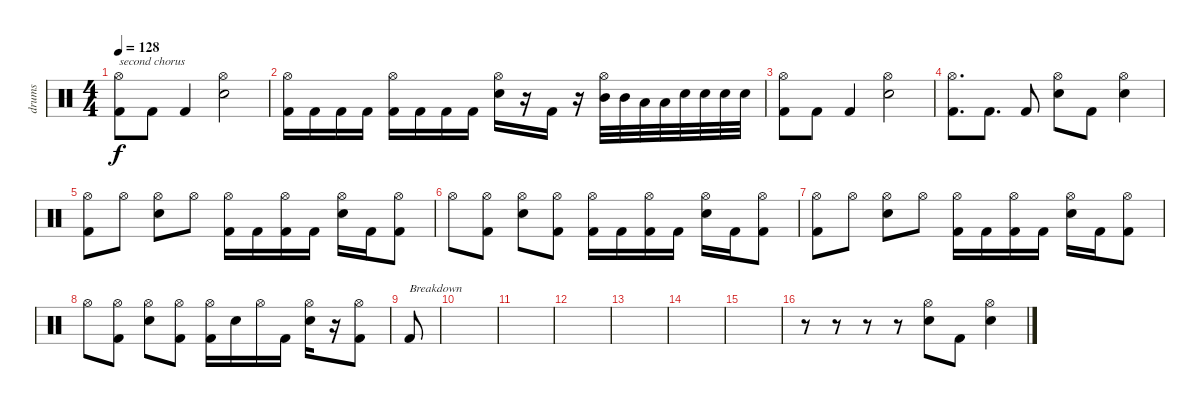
\track ("drums" "drums") {instrument percussion}
\staff {score}
\articulation defaults
\ts (4 4)
\tempo 128
\clef neutral
\ks c
("Hi-Hat (open)" "Kick (hit) 2").8{txt "second chorus" dy f} "Kick (hit) 2".8 "Kick (hit) 2".4 ("Hi-Hat (open)" "Snare (hit) 2").2 |
("Hi-Hat (open)" "Kick (hit) 2").16 "Kick (hit) 2".16 "Kick (hit) 2".16 "Kick (hit) 2".16 ("Hi-Hat (open)" "Kick (hit) 2").16 "Kick (hit) 2".16 "Kick (hit) 2".16 "Kick (hit) 2".16 ("Hi-Hat (open)" "Snare (hit) 2").16 r.16 "Kick (hit) 2".16 r.16 ("Hi-Hat (open)" "Mid Tom (hit)").32 "Mid Tom (hit)".32 "Low Tom (hit)".32 "Low Tom (hit)".32 "Snare (hit) 2".32 "Snare (hit) 2".32 "Snare (hit) 2".32 "Snare (hit) 2".32 |
("Hi-Hat (open)" "Kick (hit) 2").8 "Kick (hit) 2".8 "Kick (hit) 2".4 ("Hi-Hat (open)" "Snare (hit) 2").2 |
("Hi-Hat (open)" "Kick (hit) 2").8{d} "Kick (hit) 2".8{d} "Kick (hit) 2".8 ("Hi-Hat (open)" "Snare (hit) 2").8 "Kick (hit) 2".8 ("Hi-Hat (open)" "Snare (hit) 2").4 |
("Hi-Hat (open)" "Kick (hit) 2").8 "Hi-Hat (open)".8 ("Hi-Hat (open)" "Snare (hit) 2").8 "Hi-Hat (open)".8 ("Hi-Hat (open)" "Kick (hit) 2").16 "Kick (hit) 2".16 ("Hi-Hat (open)" "Kick (hit) 2").16 "Kick (hit) 2".16 ("Hi-Hat (open)" "Snare (hit) 2").16 "Kick (hit) 2".16 ("Hi-Hat (open)" "Kick (hit) 2").8 |
"Hi-Hat (open)".8 ("Hi-Hat (open)" "Kick (hit) 2").8 ("Hi-Hat (open)" "Snare (hit) 2").8 ("Hi-Hat (open)" "Kick (hit) 2").8 ("Hi-Hat (open)" "Kick (hit) 2").16 "Kick (hit) 2".16 ("Hi-Hat (open)" "Kick (hit) 2").16 "Kick (hit) 2".16 ("Hi-Hat (open)" "Snare (hit) 2").16 "Kick (hit) 2".16 ("Hi-Hat (open)" "Kick (hit) 2").8 |
("Hi-Hat (open)" "Kick (hit) 2").8 "Hi-Hat (open)".8 ("Hi-Hat (open)" "Snare (hit) 2").8 "Hi-Hat (open)".8 ("Hi-Hat (open)" "Kick (hit) 2").16 "Kick (hit) 2".16 ("Hi-Hat (open)" "Kick (hit) 2").16 "Kick (hit) 2".16 ("Hi-Hat (open)" "Snare (hit) 2").16 "Kick (hit) 2".16 ("Hi-Hat (open)" "Kick (hit) 2").8 |
"Hi-Hat (open)".8 ("Hi-Hat (open)" "Kick (hit) 2").8 ("Hi-Hat (open)" "Snare (hit) 2").8 ("Hi-Hat (open)" "Kick (hit) 2").8 ("Hi-Hat (open)" "Kick (hit) 2").16 "Snare (hit) 2".16 "Hi-Hat (open)".16 "Kick (hit) 2".16 ("Hi-Hat (open)" "Snare (hit) 2").16 r.16 ("Hi-Hat (open)" "Kick (hit) 2").8 |
"Kick (hit) 2".8{txt "Breakdown"} |
|
|
|
|
|
|
r.8 r.8 r.8 r.8 ("Hi-Hat (open)" "Snare (hit) 2").8 "Kick (hit) 2".8 ("Hi-Hat (open)" "Snare (hit) 2").4
